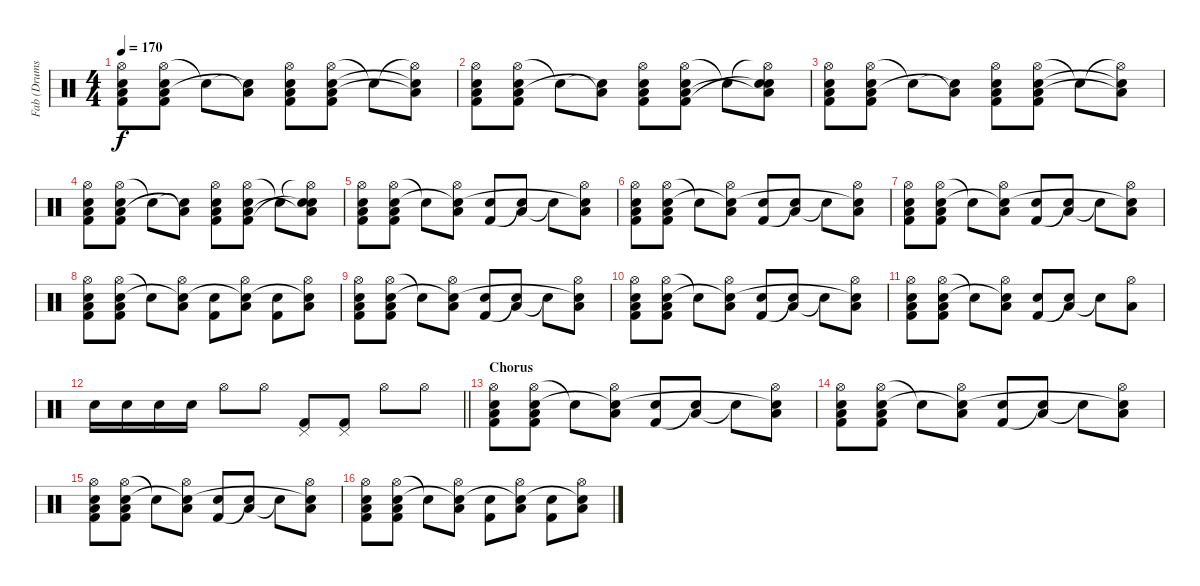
\track ("Fab (Drums)" "Fab (Drums") {instrument percussion}
\staff {score}
\articulation defaults
\ts (4 4)
\tempo 170
\clef neutral
\ks c
("Hi-Hat (open)" "Low Floor Tom (hit)" "Electric Snare (hit)" "Kick (hit) 2").8{dy f} ("Hi-Hat (open)" "Low Floor Tom (hit)" "Electric Snare (hit)" "Kick (hit) 2").8 "Snare (hit)"{t}.8 ("Low Floor Tom (hit)"{t} "Snare (hit)"{t}).8 ("Hi-Hat (open)" "Low Floor Tom (hit)" "Electric Snare (hit)" "Kick (hit) 2").8 ("Hi-Hat (open)" "Low Floor Tom (hit)" "Electric Snare (hit)" "Kick (hit) 2").8 "Snare (hit)"{t}.8 ("Hi-Hat (open)"{t} "Low Floor Tom (hit)"{t} "Snare (hit)"{t}).8 |
("Hi-Hat (open)" "Low Floor Tom (hit)" "Electric Snare (hit)" "Kick (hit) 2").8 ("Hi-Hat (open)" "Low Floor Tom (hit)" "Electric Snare (hit)" "Kick (hit) 2").8 "Snare (hit)"{t}.8 ("Low Floor Tom (hit)"{t} "Snare (hit)"{t}).8 ("Hi-Hat (open)" "Low Floor Tom (hit)" "Electric Snare (hit)" "Kick (hit) 2").8 ("Hi-Hat (open)" "Low Floor Tom (hit)" "Electric Snare (hit)" "Kick (hit) 2").8 "Snare (hit)"{t}.8 ("Hi-Hat (open)"{t} "Low Floor Tom (hit)"{t} "Electric Snare (hit)" "Snare (hit)"{t}).8 |
("Hi-Hat (open)" "Low Floor Tom (hit)" "Electric Snare (hit)" "Kick (hit) 2").8 ("Hi-Hat (open)" "Low Floor Tom (hit)" "Electric Snare (hit)" "Kick (hit) 2").8 "Snare (hit)"{t}.8 ("Low Floor Tom (hit)"{t} "Snare (hit)"{t}).8 ("Hi-Hat (open)" "Low Floor Tom (hit)" "Electric Snare (hit)" "Kick (hit) 2").8 ("Hi-Hat (open)" "Low Floor Tom (hit)" "Electric Snare (hit)" "Kick (hit) 2").8 "Snare (hit)"{t}.8 ("Hi-Hat (open)"{t} "Low Floor Tom (hit)"{t} "Snare (hit)"{t}).8 |
("Hi-Hat (open)" "Low Floor Tom (hit)" "Electric Snare (hit)" "Kick (hit) 2").8 ("Hi-Hat (open)" "Low Floor Tom (hit)" "Electric Snare (hit)" "Kick (hit) 2").8 "Snare (hit)"{t}.8 ("Low Floor Tom (hit)"{t} "Snare (hit)"{t}).8 ("Hi-Hat (open)" "Low Floor Tom (hit)" "Electric Snare (hit)" "Kick (hit) 2").8 ("Hi-Hat (open)" "Low Floor Tom (hit)" "Electric Snare (hit)" "Kick (hit) 2").8 "Snare (hit)"{t}.8 ("Hi-Hat (open)"{t} "Low Floor Tom (hit)"{t} "Electric Snare (hit)" "Snare (hit)"{t}).8 |
("Hi-Hat (open)" "Low Floor Tom (hit)" "Electric Snare (hit)" "Kick (hit) 2").8 ("Hi-Hat (open)" "Low Floor Tom (hit)" "Electric Snare (hit)" "Kick (hit) 2").8 "Snare (hit)"{t}.8 ("Hi-Hat (open)" "Low Floor Tom (hit)" "Snare (hit)"{t}).8 ("Electric Snare (hit)" "Kick (hit) 2").8 ("Low Floor Tom (hit)" "Snare (hit)"{t}).8 "Snare (hit)"{t}.8 ("Hi-Hat (open)" "Low Floor Tom (hit)" "Snare (hit)"{t}).8 |
("Hi-Hat (open)" "Low Floor Tom (hit)" "Electric Snare (hit)" "Kick (hit) 2").8 ("Hi-Hat (open)" "Low Floor Tom (hit)" "Electric Snare (hit)" "Kick (hit) 2").8 "Snare (hit)"{t}.8 ("Hi-Hat (open)" "Low Floor Tom (hit)" "Snare (hit)"{t}).8 ("Electric Snare (hit)" "Kick (hit) 2").8 ("Low Floor Tom (hit)" "Snare (hit)"{t}).8 "Snare (hit)"{t}.8 ("Hi-Hat (open)" "Low Floor Tom (hit)" "Snare (hit)"{t}).8 |
("Hi-Hat (open)" "Low Floor Tom (hit)" "Electric Snare (hit)" "Kick (hit) 2").8 ("Hi-Hat (open)" "Low Floor Tom (hit)" "Electric Snare (hit)" "Kick (hit) 2").8 "Snare (hit)"{t}.8 ("Hi-Hat (open)" "Low Floor Tom (hit)" "Snare (hit)"{t}).8 ("Electric Snare (hit)" "Kick (hit) 2").8 ("Low Floor Tom (hit)" "Snare (hit)"{t}).8 "Snare (hit)"{t}.8 ("Hi-Hat (open)" "Low Floor Tom (hit)" "Snare (hit)"{t}).8 |
("Hi-Hat (open)" "Low Floor Tom (hit)" "Electric Snare (hit)" "Kick (hit) 2").8 ("Hi-Hat (open)" "Low Floor Tom (hit)" "Electric Snare (hit)" "Kick (hit) 2").8 "Snare (hit)"{t}.8 ("Hi-Hat (open)" "Low Floor Tom (hit)" "Snare (hit)"{t}).8 ("Electric Snare (hit)" "Kick (hit) 2").8 ("Hi-Hat (open)" "Low Floor Tom (hit)" "Snare (hit)"{t}).8 ("Electric Snare (hit)" "Kick (hit) 2").8 ("Hi-Hat (open)" "Low Floor Tom (hit)" "Snare (hit)"{t}).8 |
("Hi-Hat (open)" "Low Floor Tom (hit)" "Electric Snare (hit)" "Kick (hit) 2").8 ("Hi-Hat (open)" "Low Floor Tom (hit)" "Electric Snare (hit)" "Kick (hit) 2").8 "Snare (hit)"{t}.8 ("Hi-Hat (open)" "Low Floor Tom (hit)" "Snare (hit)"{t}).8 ("Electric Snare (hit)" "Kick (hit) 2").8 ("Low Floor Tom (hit)" "Snare (hit)"{t}).8 "Snare (hit)"{t}.8 ("Hi-Hat (open)" "Low Floor Tom (hit)" "Snare (hit)"{t}).8 |
("Hi-Hat (open)" "Low Floor Tom (hit)" "Electric Snare (hit)" "Kick (hit) 2").8 ("Hi-Hat (open)" "Low Floor Tom (hit)" "Electric Snare (hit)" "Kick (hit) 2").8 "Snare (hit)"{t}.8 ("Hi-Hat (open)" "Low Floor Tom (hit)" "Snare (hit)"{t}).8 ("Electric Snare (hit)" "Kick (hit) 2").8 ("Low Floor Tom (hit)" "Snare (hit)"{t}).8 "Snare (hit)"{t}.8 ("Hi-Hat (open)" "Low Floor Tom (hit)" "Snare (hit)"{t}).8 |
("Hi-Hat (open)" "Low Floor Tom (hit)" "Electric Snare (hit)" "Kick (hit) 2").8 ("Hi-Hat (open)" "Low Floor Tom (hit)" "Electric Snare (hit)" "Kick (hit) 2").8 "Snare (hit)"{t}.8 ("Hi-Hat (open)" "Low Floor Tom (hit)" "Snare (hit)"{t}).8 ("Electric Snare (hit)" "Kick (hit) 2").8 ("Low Floor Tom (hit)" "Snare (hit)"{t}).8 "Snare (hit)"{t}.8 ("Hi-Hat (open)" "Low Floor Tom (hit)").8 |
\barLineRight lightlight "Electric Snare (hit)".16 "Electric Snare (hit)".16 "Electric Snare (hit)".16 "Electric Snare (hit)".16 "Hi-Hat (open)".8 "Hi-Hat (open)".8
("Pedal Hi-Hat (hit)" "Kick (hit) 2").8 ("Pedal Hi-Hat (hit)" "Kick (hit) 2").8 "Hi-Hat (open)".8 "Hi-Hat (open)".8 |
\section ("" "Chorus")
("Hi-Hat (open)" "Low Floor Tom (hit)" "Electric Snare (hit)" "Kick (hit) 2").8 ("Hi-Hat (open)" "Low Floor Tom (hit)" "Electric Snare (hit)" "Kick (hit) 2").8 "Snare (hit)"{t}.8 ("Hi-Hat (open)" "Low Floor Tom (hit)" "Snare (hit)"{t}).8 ("Electric Snare (hit)" "Kick (hit) 2").8 ("Low Floor Tom (hit)" "Snare (hit)"{t}).8 "Snare (hit)"{t}.8 ("Hi-Hat (open)" "Low Floor Tom (hit)" "Snare (hit)"{t}).8 |
("Hi-Hat (open)" "Low Floor Tom (hit)" "Electric Snare (hit)" "Kick (hit) 2").8 ("Hi-Hat (open)" "Low Floor Tom (hit)" "Electric Snare (hit)" "Kick (hit) 2").8 "Snare (hit)"{t}.8 ("Hi-Hat (open)" "Low Floor Tom (hit)" "Snare (hit)"{t}).8 ("Electric Snare (hit)" "Kick (hit) 2").8 ("Low Floor Tom (hit)" "Snare (hit)"{t}).8 "Snare (hit)"{t}.8 ("Hi-Hat (open)" "Low Floor Tom (hit)" "Snare (hit)"{t}).8 |
("Hi-Hat (open)" "Low Floor Tom (hit)" "Electric Snare (hit)" "Kick (hit) 2").8 ("Hi-Hat (open)" "Low Floor Tom (hit)" "Electric Snare (hit)" "Kick (hit) 2").8 "Snare (hit)"{t}.8 ("Hi-Hat (open)" "Low Floor Tom (hit)" "Snare (hit)"{t}).8 ("Electric Snare (hit)" "Kick (hit) 2").8 ("Low Floor Tom (hit)" "Snare (hit)"{t}).8 "Snare (hit)"{t}.8 ("Hi-Hat (open)" "Low Floor Tom (hit)" "Snare (hit)"{t}).8 |
("Hi-Hat (open)" "Low Floor Tom (hit)" "Electric Snare (hit)" "Kick (hit) 2").8 ("Hi-Hat (open)" "Low Floor Tom (hit)" "Electric Snare (hit)" "Kick (hit) 2").8 "Snare (hit)"{t}.8 ("Hi-Hat (open)" "Low Floor Tom (hit)" "Snare (hit)"{t}).8 ("Electric Snare (hit)" "Kick (hit) 2").8 ("Hi-Hat (open)" "Low Floor Tom (hit)" "Snare (hit)"{t}).8 ("Electric Snare (hit)" "Kick (hit) 2").8 ("Hi-Hat (open)" "Low Floor Tom (hit)" "Snare (hit)"{t}).8
